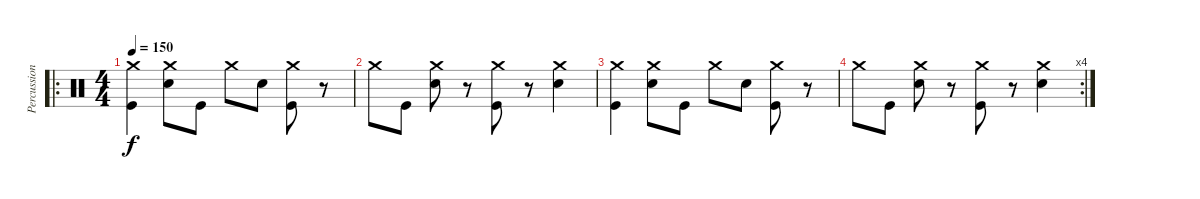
\track ("Percussion" "Percussion") {instrument percussion}
\staff {score}
\articulation defaults
\ro
\ts (4 4)
\tempo 150
\clef neutral
\ks c
("Crash medium (hit)" "Kick (hit)").4{dy f} ("Crash medium (hit)" "Snare (hit) 2").8 "Kick (hit)".8 "Crash medium (hit)".8 "Snare (hit) 2".8 ("Crash medium (hit)" "Kick (hit)").8 r.8 |
"Crash medium (hit)".8 "Kick (hit)".8 ("Crash medium (hit)" "Snare (hit) 2").8 r.8 ("Crash medium (hit)" "Kick (hit)").8 r.8 ("Crash medium (hit)" "Snare (hit) 2").4 |
("Crash medium (hit)" "Kick (hit)").4 ("Crash medium (hit)" "Snare (hit) 2").8 "Kick (hit)".8 "Crash medium (hit)".8 "Snare (hit) 2".8 ("Crash medium (hit)" "Kick (hit)").8 r.8 |
\rc 4 "Crash medium (hit)".8 "Kick (hit)".8
("Crash medium (hit)" "Snare (hit) 2").8 r.8 ("Crash medium (hit)" "Kick (hit)").8 r.8 ("Crash medium (hit)" "Snare (hit) 2").4
